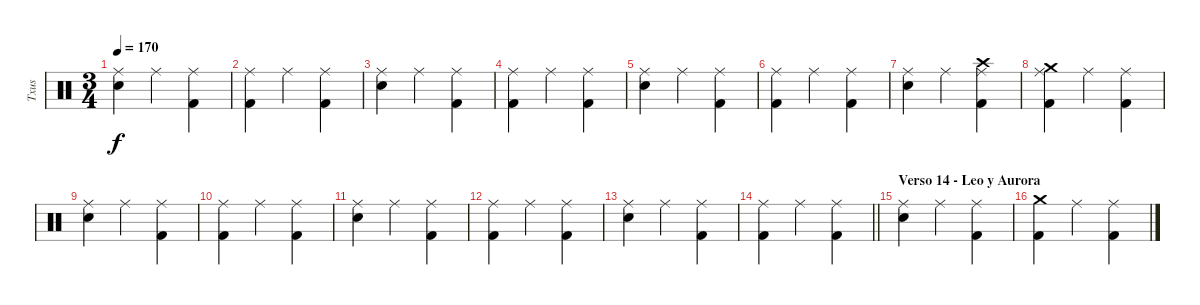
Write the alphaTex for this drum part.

\track ("Txus" "Txus") {instrument percussion}
\staff {score}
\articulation defaults
\ts (3 4)
\tempo 170
\clef neutral
\ks c
("Ride (middle)" "Electric Snare (hit)").4{dy f} "Ride (middle)".4 ("Ride (middle)" "Kick (hit) 2").4 |
("Ride (middle)" "Kick (hit) 2").4 "Ride (middle)".4 ("Ride (middle)" "Kick (hit) 2").4 |
("Ride (middle)" "Electric Snare (hit)").4 "Ride (middle)".4 ("Ride (middle)" "Kick (hit) 2").4 |
("Ride (middle)" "Kick (hit) 2").4 "Ride (middle)".4 ("Ride (middle)" "Kick (hit) 2").4 |
("Ride (middle)" "Electric Snare (hit)").4 "Ride (middle)".4 ("Ride (middle)" "Kick (hit) 2").4 |
("Ride (middle)" "Kick (hit) 2").4 "Ride (middle)".4 ("Ride (middle)" "Kick (hit) 2").4 |
("Ride (middle)" "Electric Snare (hit)").4 "Ride (middle)".4 ("Crash high (hit)" "Ride (middle)" "Kick (hit) 2").4 |
("Crash medium (hit)" "Ride (middle)" "Kick (hit) 2").4 "Ride (middle)".4 ("Ride (middle)" "Kick (hit) 2").4 |
("Ride (middle)" "Electric Snare (hit)").4 "Ride (middle)".4 ("Ride (middle)" "Kick (hit) 2").4 |
("Ride (middle)" "Kick (hit) 2").4 "Ride (middle)".4 ("Ride (middle)" "Kick (hit) 2").4 |
("Ride (middle)" "Electric Snare (hit)").4 "Ride (middle)".4 ("Ride (middle)" "Kick (hit) 2").4 |
("Ride (middle)" "Kick (hit) 2").4 "Ride (middle)".4 ("Ride (middle)" "Kick (hit) 2").4 |
("Ride (middle)" "Electric Snare (hit)").4 "Ride (middle)".4 ("Ride (middle)" "Kick (hit) 2").4 |
\barLineRight lightlight
("Ride (middle)" "Kick (hit) 2").4 "Ride (middle)".4 ("Ride (middle)" "Kick (hit) 2").4 |
\section ("" "Verso 14 - Leo y Aurora")
("Ride (middle)" "Electric Snare (hit)").4 "Ride (middle)".4 ("Ride (middle)" "Kick (hit) 2").4 |
("Crash medium (hit)" "Kick (hit) 2").4 "Ride (middle)".4 ("Ride (middle)" "Kick (hit) 2").4
